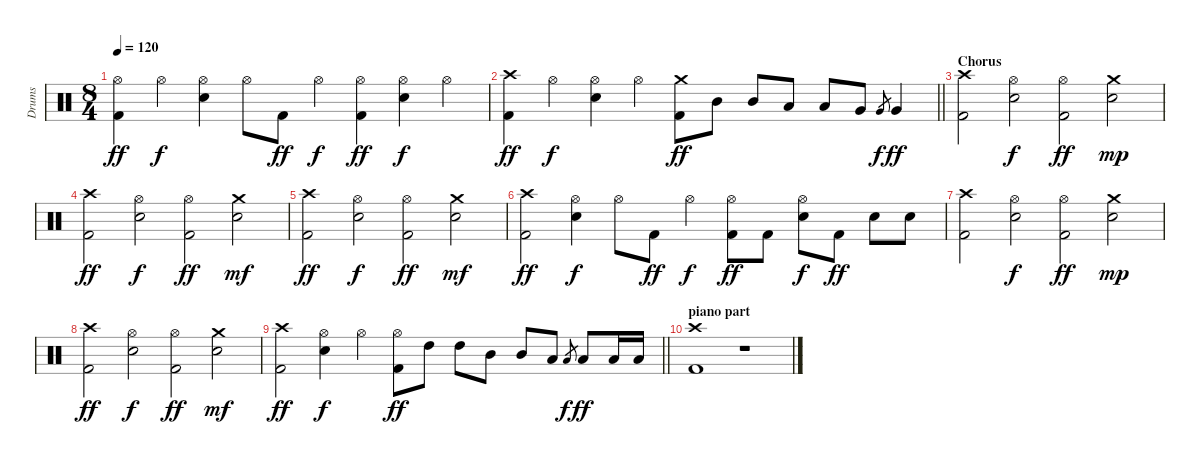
\track ("Drums" "Drums") {instrument percussion}
\staff {score}
\articulation defaults
\ts (8 4)
\tempo 120
\clef neutral
\ks c
("Hi-Hat (open)" "Kick (hit) 2").4{dy ff} "Hi-Hat (open)".4{dy f} ("Hi-Hat (open)" "Electric Snare (hit)").4 "Hi-Hat (open)".8 "Kick (hit) 2".8{dy ff} "Hi-Hat (open)".4{dy f} ("Hi-Hat (open)" "Kick (hit) 2").4{dy ff} ("Hi-Hat (open)" "Electric Snare (hit)").4{dy f} "Hi-Hat (open)".4 |
\barLineRight lightlight
("Crash high (hit)" "Kick (hit) 2").4{dy ff} "Hi-Hat (open)".4{dy f} ("Hi-Hat (open)" "Electric Snare (hit)").4 "Hi-Hat (open)".4 ("Crash medium (hit)" "Kick (hit) 2").8{dy ff} "Mid Tom (hit)".8 "Mid Tom (hit)".8 "Low Tom (hit)".8 "Low Tom (hit)".8 "Very Low Tom (hit)".8 "Very Low Tom (hit)".8{gr dy f} "Very Low Tom (hit)".4{dy ff} |
\section ("" "Chorus")
("Crash high (hit)" "Kick (hit) 2").2 ("Hi-Hat (open)" "Electric Snare (hit)").2{dy f} ("Hi-Hat (open)" "Kick (hit) 2").2{dy ff} ("Crash medium (hit)" "Electric Snare (hit)").2{dy mp} |
("Crash high (hit)" "Kick (hit) 2").2{dy ff} ("Hi-Hat (open)" "Electric Snare (hit)").2{dy f} ("Hi-Hat (open)" "Kick (hit) 2").2{dy ff} ("Crash medium (hit)" "Electric Snare (hit)").2{dy mf} |
("Crash high (hit)" "Kick (hit) 2").2{dy ff} ("Hi-Hat (open)" "Electric Snare (hit)").2{dy f} ("Hi-Hat (open)" "Kick (hit) 2").2{dy ff} ("Crash medium (hit)" "Electric Snare (hit)").2{dy mf} |
("Crash high (hit)" "Kick (hit) 2").2{dy ff} ("Hi-Hat (open)" "Electric Snare (hit)").4{dy f} "Hi-Hat (open)".8 "Kick (hit) 2".8{dy ff} "Hi-Hat (open)".4{dy f} ("Hi-Hat (open)" "Kick (hit) 2").8{dy ff} "Kick (hit) 2".8 ("Hi-Hat (open)" "Electric Snare (hit)").8{dy f} "Kick (hit) 2".8{dy ff} "Electric Snare (hit)".8 "Electric Snare (hit)".8 |
("Crash high (hit)" "Kick (hit) 2").2 ("Hi-Hat (open)" "Electric Snare (hit)").2{dy f} ("Hi-Hat (open)" "Kick (hit) 2").2{dy ff} ("Crash medium (hit)" "Electric Snare (hit)").2{dy mp} |
("Crash high (hit)" "Kick (hit) 2").2{dy ff} ("Hi-Hat (open)" "Electric Snare (hit)").2{dy f} ("Hi-Hat (open)" "Kick (hit) 2").2{dy ff} ("Crash medium (hit)" "Electric Snare (hit)").2{dy mf} |
\barLineRight lightlight
("Crash high (hit)" "Kick (hit) 2").2{dy ff} ("Hi-Hat (open)" "Electric Snare (hit)").4{dy f} "Hi-Hat (open)".4 ("Hi-Hat (open)" "Kick (hit) 2").8{dy ff} "High Tom (hit)".8 "High Tom (hit)".8 "Mid Tom (hit)".8 "Mid Tom (hit)".8 "Low Tom (hit)".8 "Low Tom (hit)".8{gr dy f} "Low Tom (hit)".8{dy ff} "Low Tom (hit)".16 "Low Tom (hit)".16 |
\section ("" "piano part")
("Crash high (hit)" "Kick (hit) 2").1 r.1
